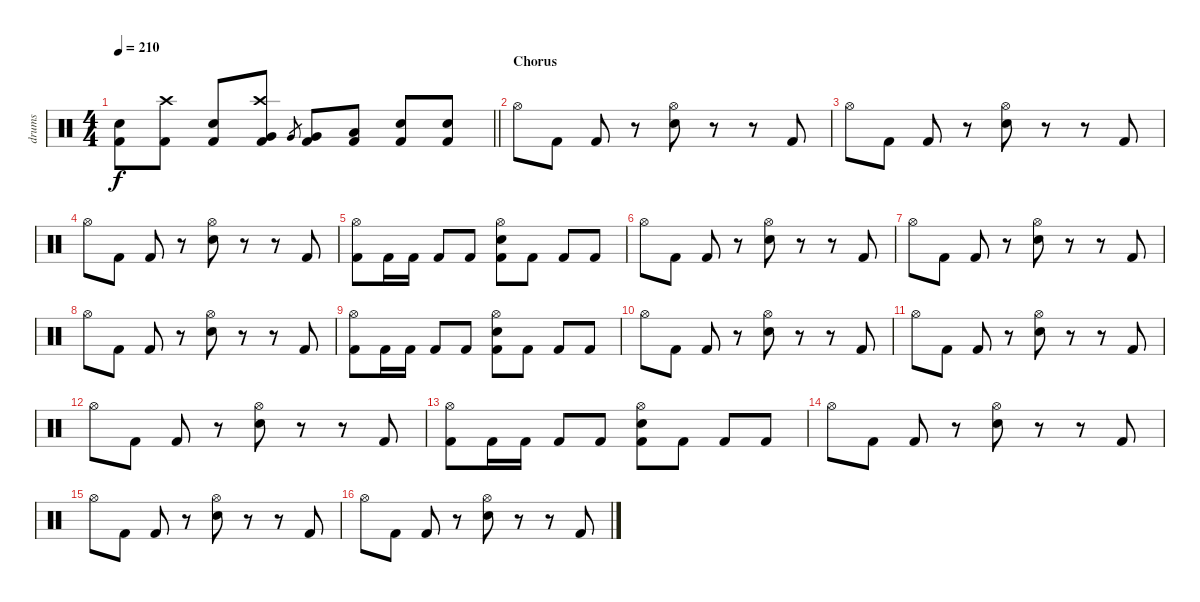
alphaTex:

\track ("drums" "drums") {solo instrument percussion}
\staff {score}
\articulation defaults
\ts (4 4)
\tempo 210
\clef neutral
\barLineRight lightlight
\ks c
("Snare (hit)"{t} "Kick (hit) 2").8{dy f} ("Crash high (hit)" "Kick (hit) 2").8 ("Electric Snare (hit)" "Kick (hit) 2").8 ("Crash high (hit)" "Very Low Tom (hit)" "Kick (hit) 2").8 "Very Low Tom (hit)".8{gr} ("Very Low Tom (hit)" "Kick (hit) 2").8 ("Low Floor Tom (hit)" "Kick (hit) 2").8 ("Electric Snare (hit)" "Kick (hit) 2").8 ("Electric Snare (hit)" "Kick (hit) 2").8 |
\section ("" "Chorus")
"Hi-Hat (open)".8 "Kick (hit) 2".8 "Kick (hit) 2".8 r.8 ("Hi-Hat (open)" "Electric Snare (hit)").8 r.8 r.8 "Kick (hit) 2".8 |
"Hi-Hat (open)".8 "Kick (hit) 2".8 "Kick (hit) 2".8 r.8 ("Hi-Hat (open)" "Electric Snare (hit)").8 r.8 r.8 "Kick (hit) 2".8 |
"Hi-Hat (open)".8 "Kick (hit) 2".8 "Kick (hit) 2".8 r.8 ("Hi-Hat (open)" "Electric Snare (hit)").8 r.8 r.8 "Kick (hit) 2".8 |
("Hi-Hat (open)" "Kick (hit) 2").8 "Kick (hit) 2".16 "Kick (hit) 2".16 "Kick (hit) 2".8 "Kick (hit) 2".8 ("Hi-Hat (open)" "Electric Snare (hit)" "Kick (hit) 2").8 "Kick (hit) 2".8 "Kick (hit) 2".8 "Kick (hit) 2".8 |
"Hi-Hat (open)".8 "Kick (hit) 2".8 "Kick (hit) 2".8 r.8 ("Hi-Hat (open)" "Electric Snare (hit)").8 r.8 r.8 "Kick (hit) 2".8 |
"Hi-Hat (open)".8 "Kick (hit) 2".8 "Kick (hit) 2".8 r.8 ("Hi-Hat (open)" "Electric Snare (hit)").8 r.8 r.8 "Kick (hit) 2".8 |
"Hi-Hat (open)".8 "Kick (hit) 2".8 "Kick (hit) 2".8 r.8 ("Hi-Hat (open)" "Electric Snare (hit)").8 r.8 r.8 "Kick (hit) 2".8 |
("Hi-Hat (open)" "Kick (hit) 2").8 "Kick (hit) 2".16 "Kick (hit) 2".16 "Kick (hit) 2".8 "Kick (hit) 2".8 ("Hi-Hat (open)" "Electric Snare (hit)" "Kick (hit) 2").8 "Kick (hit) 2".8 "Kick (hit) 2".8 "Kick (hit) 2".8 |
"Hi-Hat (open)".8 "Kick (hit) 2".8 "Kick (hit) 2".8 r.8 ("Hi-Hat (open)" "Electric Snare (hit)").8 r.8 r.8 "Kick (hit) 2".8 |
"Hi-Hat (open)".8 "Kick (hit) 2".8 "Kick (hit) 2".8 r.8 ("Hi-Hat (open)" "Electric Snare (hit)").8 r.8 r.8 "Kick (hit) 2".8 |
"Hi-Hat (open)".8 "Kick (hit) 2".8 "Kick (hit) 2".8 r.8 ("Hi-Hat (open)" "Electric Snare (hit)").8 r.8 r.8 "Kick (hit) 2".8 |
("Hi-Hat (open)" "Kick (hit) 2").8 "Kick (hit) 2".16 "Kick (hit) 2".16 "Kick (hit) 2".8 "Kick (hit) 2".8 ("Hi-Hat (open)" "Electric Snare (hit)" "Kick (hit) 2").8 "Kick (hit) 2".8 "Kick (hit) 2".8 "Kick (hit) 2".8 |
"Hi-Hat (open)".8 "Kick (hit) 2".8 "Kick (hit) 2".8 r.8 ("Hi-Hat (open)" "Electric Snare (hit)").8 r.8 r.8 "Kick (hit) 2".8 |
"Hi-Hat (open)".8 "Kick (hit) 2".8 "Kick (hit) 2".8 r.8 ("Hi-Hat (open)" "Electric Snare (hit)").8 r.8 r.8 "Kick (hit) 2".8 |
"Hi-Hat (open)".8 "Kick (hit) 2".8 "Kick (hit) 2".8 r.8 ("Hi-Hat (open)" "Electric Snare (hit)").8 r.8 r.8 "Kick (hit) 2".8
